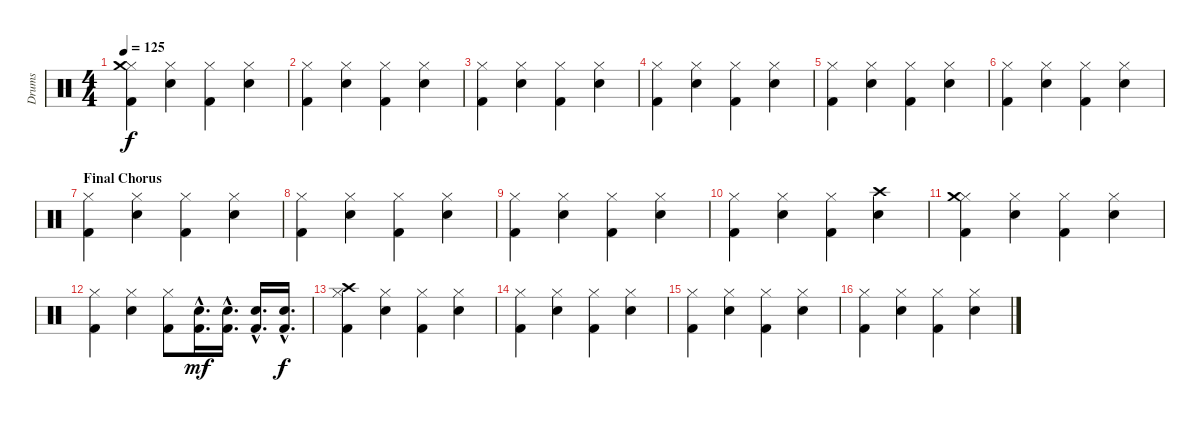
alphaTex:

\track ("Drums" "Drums") {instrument percussion}
\staff {score}
\articulation defaults
\ts (4 4)
\tempo 125
\clef neutral
\ks c
("Hi-Hat (closed)" "Crash medium (hit)" "Kick (hit) 2").4{dy f} ("Hi-Hat (closed)" "Electric Snare (hit)").4 ("Hi-Hat (closed)" "Kick (hit) 2").4 ("Hi-Hat (closed)" "Electric Snare (hit)").4 |
("Hi-Hat (closed)" "Kick (hit) 2").4 ("Hi-Hat (closed)" "Electric Snare (hit)").4 ("Hi-Hat (closed)" "Kick (hit) 2").4 ("Hi-Hat (closed)" "Electric Snare (hit)").4 |
("Hi-Hat (closed)" "Kick (hit) 2").4 ("Hi-Hat (closed)" "Electric Snare (hit)").4 ("Hi-Hat (closed)" "Kick (hit) 2").4 ("Hi-Hat (closed)" "Electric Snare (hit)").4 |
("Hi-Hat (closed)" "Kick (hit) 2").4 ("Hi-Hat (closed)" "Electric Snare (hit)").4 ("Hi-Hat (closed)" "Kick (hit) 2").4 ("Hi-Hat (closed)" "Electric Snare (hit)").4 |
("Hi-Hat (closed)" "Kick (hit) 2").4 ("Hi-Hat (closed)" "Electric Snare (hit)").4 ("Hi-Hat (closed)" "Kick (hit) 2").4 ("Hi-Hat (closed)" "Electric Snare (hit)").4 |
("Hi-Hat (closed)" "Kick (hit) 2").4 ("Hi-Hat (closed)" "Electric Snare (hit)").4 ("Hi-Hat (closed)" "Kick (hit) 2").4 ("Hi-Hat (closed)" "Electric Snare (hit)").4 |
\section ("" "Final Chorus")
("Hi-Hat (closed)" "Kick (hit) 2").4 ("Hi-Hat (closed)" "Electric Snare (hit)").4 ("Hi-Hat (closed)" "Kick (hit) 2").4 ("Hi-Hat (closed)" "Electric Snare (hit)").4 |
("Hi-Hat (closed)" "Kick (hit) 2").4 ("Hi-Hat (closed)" "Electric Snare (hit)").4 ("Hi-Hat (closed)" "Kick (hit) 2").4 ("Hi-Hat (closed)" "Electric Snare (hit)").4 |
("Hi-Hat (closed)" "Kick (hit) 2").4 ("Hi-Hat (closed)" "Electric Snare (hit)").4 ("Hi-Hat (closed)" "Kick (hit) 2").4 ("Hi-Hat (closed)" "Electric Snare (hit)").4 |
("Hi-Hat (closed)" "Kick (hit) 2").4 ("Hi-Hat (closed)" "Electric Snare (hit)").4 ("Hi-Hat (closed)" "Kick (hit) 2").4 ("Crash high (hit)" "Electric Snare (hit)").4 |
("Hi-Hat (closed)" "Crash medium (hit)" "Kick (hit) 2").4 ("Hi-Hat (closed)" "Electric Snare (hit)").4 ("Hi-Hat (closed)" "Kick (hit) 2").4 ("Hi-Hat (closed)" "Electric Snare (hit)").4 |
("Hi-Hat (closed)" "Kick (hit) 2").4 ("Hi-Hat (closed)" "Electric Snare (hit)").4 ("Hi-Hat (closed)" "Kick (hit) 2").8 ("Electric Snare (hit)"{hac} "Kick (hit) 2"{hac}).16{d dy mf} ("Electric Snare (hit)"{hac} "Kick (hit) 2"{hac}).16{d} ("Electric Snare (hit)"{hac} "Kick (hit) 2"{hac}).16{d} ("Electric Snare (hit)"{hac} "Kick (hit) 2"{hac}).16{d dy f} |
("Hi-Hat (closed)" "Crash high (hit)" "Kick (hit) 2").4 ("Hi-Hat (closed)" "Electric Snare (hit)").4 ("Hi-Hat (closed)" "Kick (hit) 2").4 ("Hi-Hat (closed)" "Electric Snare (hit)").4 |
("Hi-Hat (closed)" "Kick (hit) 2").4 ("Hi-Hat (closed)" "Electric Snare (hit)").4 ("Hi-Hat (closed)" "Kick (hit) 2").4 ("Hi-Hat (closed)" "Electric Snare (hit)").4 |
("Hi-Hat (closed)" "Kick (hit) 2").4 ("Hi-Hat (closed)" "Electric Snare (hit)").4 ("Hi-Hat (closed)" "Kick (hit) 2").4 ("Hi-Hat (closed)" "Electric Snare (hit)").4 |
("Hi-Hat (closed)" "Kick (hit) 2").4 ("Hi-Hat (closed)" "Electric Snare (hit)").4 ("Hi-Hat (closed)" "Kick (hit) 2").4 ("Hi-Hat (closed)" "Electric Snare (hit)").4
